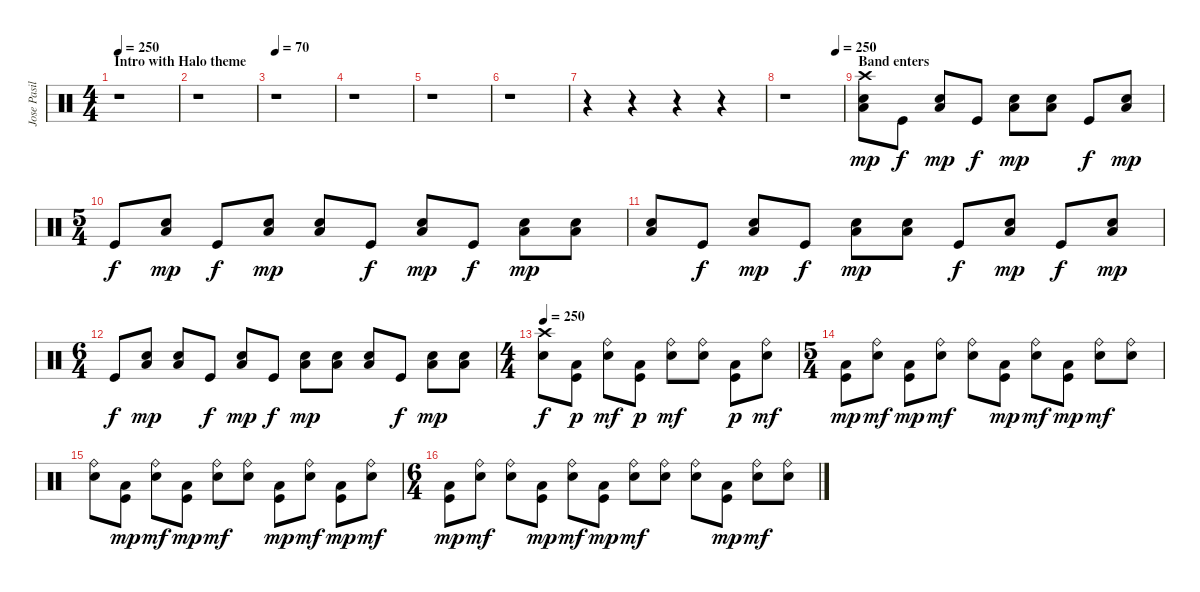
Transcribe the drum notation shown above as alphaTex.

\track ("Jose Pasillas II" "Jose Pasil") {instrument percussion}
\staff {score}
\articulation defaults
\ts (4 4)
\section ("" "Intro with Halo theme")
\tempo 250
\tempo 70
\tempo 250
\clef neutral
\ks c
r.1{dy mp} |
r.1 |
\tempo 70
r.1 |
r.1 |
r.1 |
r.1 |
r.4 r.4 r.4 r.4 |
\tempo (250 0.875)
r.1 |
\section ("" "Band enters")
("Crash high (hit)" "Electric Snare (hit)" "Low Floor Tom (hit)").8 "Kick (hit)".8{dy f} ("Electric Snare (hit)" "Low Floor Tom (hit)").8{dy mp} "Kick (hit)".8{dy f} ("Electric Snare (hit)" "Low Floor Tom (hit)").8{dy mp} ("Electric Snare (hit)" "Low Floor Tom (hit)").8 "Kick (hit)".8{dy f} ("Electric Snare (hit)" "Low Floor Tom (hit)").8{dy mp} |
\ts (5 4)
"Kick (hit)".8{dy f} ("Electric Snare (hit)" "Low Floor Tom (hit)").8{dy mp} "Kick (hit)".8{dy f} ("Electric Snare (hit)" "Low Floor Tom (hit)").8{dy mp} ("Electric Snare (hit)" "Low Floor Tom (hit)").8 "Kick (hit)".8{dy f} ("Electric Snare (hit)" "Low Floor Tom (hit)").8{dy mp} "Kick (hit)".8{dy f} ("Electric Snare (hit)" "Low Floor Tom (hit)").8{dy mp} ("Electric Snare (hit)" "Low Floor Tom (hit)").8 |
("Electric Snare (hit)" "Low Floor Tom (hit)").8 "Kick (hit)".8{dy f} ("Electric Snare (hit)" "Low Floor Tom (hit)").8{dy mp} "Kick (hit)".8{dy f} ("Electric Snare (hit)" "Low Floor Tom (hit)").8{dy mp} ("Electric Snare (hit)" "Low Floor Tom (hit)").8 "Kick (hit)".8{dy f} ("Electric Snare (hit)" "Low Floor Tom (hit)").8{dy mp} "Kick (hit)".8{dy f} ("Electric Snare (hit)" "Low Floor Tom (hit)").8{dy mp} |
\ts (6 4)
"Kick (hit)".8{dy f} ("Electric Snare (hit)" "Low Floor Tom (hit)").8{dy mp} ("Electric Snare (hit)" "Low Floor Tom (hit)").8 "Kick (hit)".8{dy f} ("Electric Snare (hit)" "Low Floor Tom (hit)").8{dy mp} "Kick (hit)".8{dy f} ("Electric Snare (hit)" "Low Floor Tom (hit)").8{dy mp} ("Electric Snare (hit)" "Low Floor Tom (hit)").8 ("Electric Snare (hit)" "Low Floor Tom (hit)").8 "Kick (hit)".8{dy f} ("Electric Snare (hit)" "Low Floor Tom (hit)").8{dy mp} ("Electric Snare (hit)" "Low Floor Tom (hit)").8 |
\ts (4 4)
\tempo 250
("Crash high (hit)" "Electric Snare (hit)").8{dy f} ("Low Floor Tom (hit)" "Kick (hit)").8{dy p} ("Ride (bell)" "Electric Snare (hit)").8{dy mf} ("Low Floor Tom (hit)" "Kick (hit)").8{dy p} ("Ride (bell)" "Electric Snare (hit)").8{dy mf} ("Ride (bell)" "Electric Snare (hit)").8 ("Low Floor Tom (hit)" "Kick (hit)").8{dy p} ("Ride (bell)" "Electric Snare (hit)").8{dy mf} |
\ts (5 4)
("Low Floor Tom (hit)" "Kick (hit)").8{dy mp} ("Ride (bell)" "Electric Snare (hit)").8{dy mf} ("Low Floor Tom (hit)" "Kick (hit)").8{dy mp} ("Ride (bell)" "Electric Snare (hit)").8{dy mf} ("Ride (bell)" "Electric Snare (hit)").8 ("Low Floor Tom (hit)" "Kick (hit)").8{dy mp} ("Ride (bell)" "Electric Snare (hit)").8{dy mf} ("Low Floor Tom (hit)" "Kick (hit)").8{dy mp} ("Ride (bell)" "Electric Snare (hit)").8{dy mf} ("Ride (bell)" "Electric Snare (hit)").8 |
("Ride (bell)" "Electric Snare (hit)").8 ("Low Floor Tom (hit)" "Kick (hit)").8{dy mp} ("Ride (bell)" "Electric Snare (hit)").8{dy mf} ("Low Floor Tom (hit)" "Kick (hit)").8{dy mp} ("Ride (bell)" "Electric Snare (hit)").8{dy mf} ("Ride (bell)" "Electric Snare (hit)").8 ("Low Floor Tom (hit)" "Kick (hit)").8{dy mp} ("Ride (bell)" "Electric Snare (hit)").8{dy mf} ("Low Floor Tom (hit)" "Kick (hit)").8{dy mp} ("Ride (bell)" "Electric Snare (hit)").8{dy mf} |
\ts (6 4)
("Low Floor Tom (hit)" "Kick (hit)").8{dy mp} ("Ride (bell)" "Electric Snare (hit)").8{dy mf} ("Ride (bell)" "Electric Snare (hit)").8 ("Low Floor Tom (hit)" "Kick (hit)").8{dy mp} ("Ride (bell)" "Electric Snare (hit)").8{dy mf} ("Low Floor Tom (hit)" "Kick (hit)").8{dy mp} ("Ride (bell)" "Electric Snare (hit)").8{dy mf} ("Ride (bell)" "Electric Snare (hit)").8 ("Ride (bell)" "Electric Snare (hit)").8 ("Low Floor Tom (hit)" "Kick (hit)").8{dy mp} ("Ride (bell)" "Electric Snare (hit)").8{dy mf} ("Ride (bell)" "Electric Snare (hit)").8
